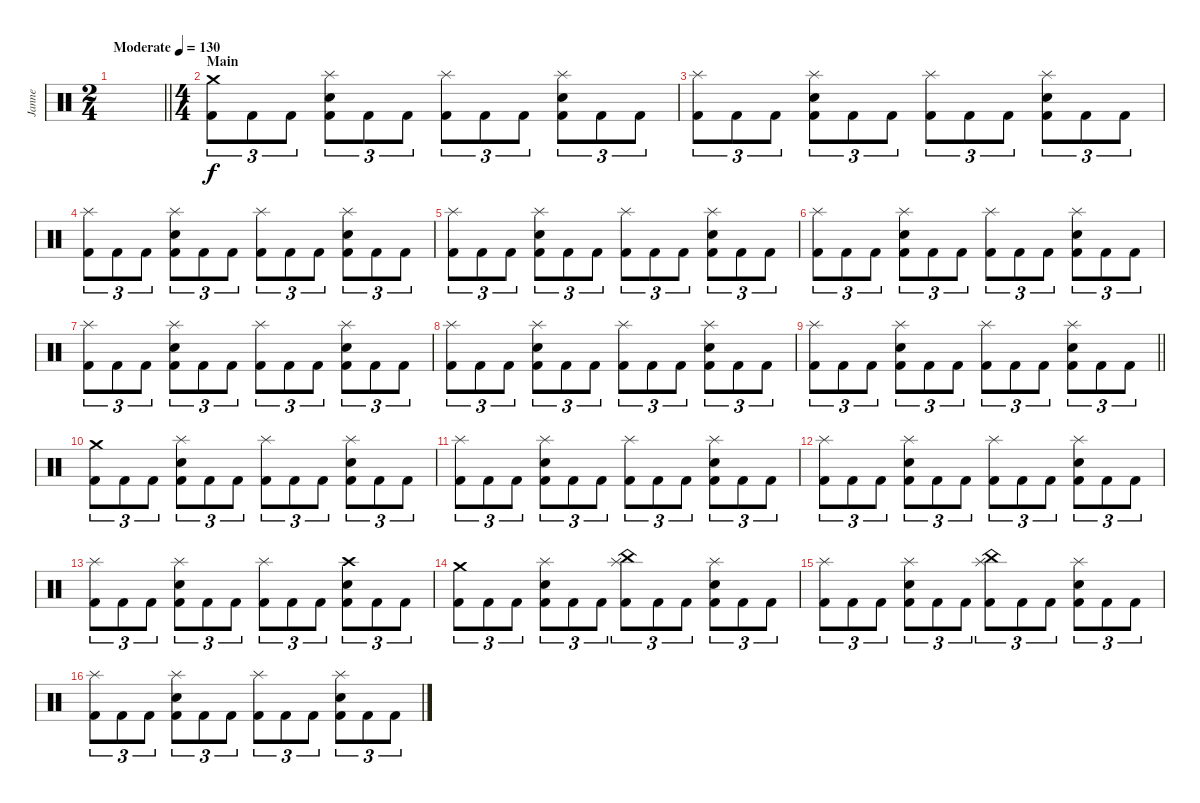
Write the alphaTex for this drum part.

\track ("Janne" "Janne") {instrument percussion}
\staff {score}
\articulation defaults
\ts (2 4)
\tempo (130 "Moderate")
\clef neutral
\barLineRight lightlight
\ks c
|
\ts (4 4)
\section ("" "Main")
("Kick (hit) 2" "Crash medium (hit)").8{tu (3 2)} "Kick (hit) 2".8{tu (3 2)} "Kick (hit) 2".8{tu (3 2)} ("Kick (hit) 2" "Snare (hit) 2" "Splash (hit)").8{tu (3 2)} "Kick (hit) 2".8{tu (3 2)} "Kick (hit) 2".8{tu (3 2)} ("Kick (hit) 2" "Splash (hit)").8{tu (3 2)} "Kick (hit) 2".8{tu (3 2)} "Kick (hit) 2".8{tu (3 2)} ("Kick (hit) 2" "Snare (hit) 2" "Splash (hit)").8{tu (3 2)} "Kick (hit) 2".8{tu (3 2)} "Kick (hit) 2".8{tu (3 2)} |
("Kick (hit) 2" "Splash (hit)").8{tu (3 2)} "Kick (hit) 2".8{tu (3 2)} "Kick (hit) 2".8{tu (3 2)} ("Kick (hit) 2" "Snare (hit) 2" "Splash (hit)").8{tu (3 2)} "Kick (hit) 2".8{tu (3 2)} "Kick (hit) 2".8{tu (3 2)} ("Kick (hit) 2" "Splash (hit)").8{tu (3 2)} "Kick (hit) 2".8{tu (3 2)} "Kick (hit) 2".8{tu (3 2)} ("Kick (hit) 2" "Snare (hit) 2" "Splash (hit)").8{tu (3 2)} "Kick (hit) 2".8{tu (3 2)} "Kick (hit) 2".8{tu (3 2)} |
("Kick (hit) 2" "Splash (hit)").8{tu (3 2)} "Kick (hit) 2".8{tu (3 2)} "Kick (hit) 2".8{tu (3 2)} ("Kick (hit) 2" "Snare (hit) 2" "Splash (hit)").8{tu (3 2)} "Kick (hit) 2".8{tu (3 2)} "Kick (hit) 2".8{tu (3 2)} ("Kick (hit) 2" "Splash (hit)").8{tu (3 2)} "Kick (hit) 2".8{tu (3 2)} "Kick (hit) 2".8{tu (3 2)} ("Kick (hit) 2" "Snare (hit) 2" "Splash (hit)").8{tu (3 2)} "Kick (hit) 2".8{tu (3 2)} "Kick (hit) 2".8{tu (3 2)} |
("Kick (hit) 2" "Splash (hit)").8{tu (3 2)} "Kick (hit) 2".8{tu (3 2)} "Kick (hit) 2".8{tu (3 2)} ("Kick (hit) 2" "Snare (hit) 2" "Splash (hit)").8{tu (3 2)} "Kick (hit) 2".8{tu (3 2)} "Kick (hit) 2".8{tu (3 2)} ("Kick (hit) 2" "Splash (hit)").8{tu (3 2)} "Kick (hit) 2".8{tu (3 2)} "Kick (hit) 2".8{tu (3 2)} ("Kick (hit) 2" "Snare (hit) 2" "Splash (hit)").8{tu (3 2)} "Kick (hit) 2".8{tu (3 2)} "Kick (hit) 2".8{tu (3 2)} |
("Kick (hit) 2" "Splash (hit)").8{tu (3 2)} "Kick (hit) 2".8{tu (3 2)} "Kick (hit) 2".8{tu (3 2)} ("Kick (hit) 2" "Snare (hit) 2" "Splash (hit)").8{tu (3 2)} "Kick (hit) 2".8{tu (3 2)} "Kick (hit) 2".8{tu (3 2)} ("Kick (hit) 2" "Splash (hit)").8{tu (3 2)} "Kick (hit) 2".8{tu (3 2)} "Kick (hit) 2".8{tu (3 2)} ("Kick (hit) 2" "Snare (hit) 2" "Splash (hit)").8{tu (3 2)} "Kick (hit) 2".8{tu (3 2)} "Kick (hit) 2".8{tu (3 2)} |
("Kick (hit) 2" "Splash (hit)").8{tu (3 2)} "Kick (hit) 2".8{tu (3 2)} "Kick (hit) 2".8{tu (3 2)} ("Kick (hit) 2" "Snare (hit) 2" "Splash (hit)").8{tu (3 2)} "Kick (hit) 2".8{tu (3 2)} "Kick (hit) 2".8{tu (3 2)} ("Kick (hit) 2" "Splash (hit)").8{tu (3 2)} "Kick (hit) 2".8{tu (3 2)} "Kick (hit) 2".8{tu (3 2)} ("Kick (hit) 2" "Snare (hit) 2" "Splash (hit)").8{tu (3 2)} "Kick (hit) 2".8{tu (3 2)} "Kick (hit) 2".8{tu (3 2)} |
("Kick (hit) 2" "Splash (hit)").8{tu (3 2)} "Kick (hit) 2".8{tu (3 2)} "Kick (hit) 2".8{tu (3 2)} ("Kick (hit) 2" "Snare (hit) 2" "Splash (hit)").8{tu (3 2)} "Kick (hit) 2".8{tu (3 2)} "Kick (hit) 2".8{tu (3 2)} ("Kick (hit) 2" "Splash (hit)").8{tu (3 2)} "Kick (hit) 2".8{tu (3 2)} "Kick (hit) 2".8{tu (3 2)} ("Kick (hit) 2" "Snare (hit) 2" "Splash (hit)").8{tu (3 2)} "Kick (hit) 2".8{tu (3 2)} "Kick (hit) 2".8{tu (3 2)} |
\barLineRight lightlight
("Kick (hit) 2" "Splash (hit)").8{tu (3 2)} "Kick (hit) 2".8{tu (3 2)} "Kick (hit) 2".8{tu (3 2)} ("Kick (hit) 2" "Snare (hit) 2" "Splash (hit)").8{tu (3 2)} "Kick (hit) 2".8{tu (3 2)} "Kick (hit) 2".8{tu (3 2)} ("Kick (hit) 2" "Splash (hit)").8{tu (3 2)} "Kick (hit) 2".8{tu (3 2)} "Kick (hit) 2".8{tu (3 2)} ("Kick (hit) 2" "Snare (hit) 2" "Splash (hit)").8{tu (3 2)} "Kick (hit) 2".8{tu (3 2)} "Kick (hit) 2".8{tu (3 2)} |
\section ("" "")
("Kick (hit) 2" "Crash medium (hit)").8{tu (3 2)} "Kick (hit) 2".8{tu (3 2)} "Kick (hit) 2".8{tu (3 2)} ("Kick (hit) 2" "Snare (hit) 2" "Splash (hit)").8{tu (3 2)} "Kick (hit) 2".8{tu (3 2)} "Kick (hit) 2".8{tu (3 2)} ("Kick (hit) 2" "Splash (hit)").8{tu (3 2)} "Kick (hit) 2".8{tu (3 2)} "Kick (hit) 2".8{tu (3 2)} ("Kick (hit) 2" "Snare (hit) 2" "Splash (hit)").8{tu (3 2)} "Kick (hit) 2".8{tu (3 2)} "Kick (hit) 2".8{tu (3 2)} |
("Kick (hit) 2" "Splash (hit)").8{tu (3 2)} "Kick (hit) 2".8{tu (3 2)} "Kick (hit) 2".8{tu (3 2)} ("Kick (hit) 2" "Snare (hit) 2" "Splash (hit)").8{tu (3 2)} "Kick (hit) 2".8{tu (3 2)} "Kick (hit) 2".8{tu (3 2)} ("Kick (hit) 2" "Splash (hit)").8{tu (3 2)} "Kick (hit) 2".8{tu (3 2)} "Kick (hit) 2".8{tu (3 2)} ("Kick (hit) 2" "Snare (hit) 2" "Splash (hit)").8{tu (3 2)} "Kick (hit) 2".8{tu (3 2)} "Kick (hit) 2".8{tu (3 2)} |
("Kick (hit) 2" "Splash (hit)").8{tu (3 2)} "Kick (hit) 2".8{tu (3 2)} "Kick (hit) 2".8{tu (3 2)} ("Kick (hit) 2" "Snare (hit) 2" "Splash (hit)").8{tu (3 2)} "Kick (hit) 2".8{tu (3 2)} "Kick (hit) 2".8{tu (3 2)} ("Kick (hit) 2" "Splash (hit)").8{tu (3 2)} "Kick (hit) 2".8{tu (3 2)} "Kick (hit) 2".8{tu (3 2)} ("Kick (hit) 2" "Snare (hit) 2" "Splash (hit)").8{tu (3 2)} "Kick (hit) 2".8{tu (3 2)} "Kick (hit) 2".8{tu (3 2)} |
("Kick (hit) 2" "Splash (hit)").8{tu (3 2)} "Kick (hit) 2".8{tu (3 2)} "Kick (hit) 2".8{tu (3 2)} ("Kick (hit) 2" "Snare (hit) 2" "Splash (hit)").8{tu (3 2)} "Kick (hit) 2".8{tu (3 2)} "Kick (hit) 2".8{tu (3 2)} ("Kick (hit) 2" "Splash (hit)").8{tu (3 2)} "Kick (hit) 2".8{tu (3 2)} "Kick (hit) 2".8{tu (3 2)} ("Kick (hit) 2" "Snare (hit) 2" "Crash high (hit)").8{tu (3 2)} "Kick (hit) 2".8{tu (3 2)} "Kick (hit) 2".8{tu (3 2)} |
("Kick (hit) 2" "Crash medium (hit)").8{tu (3 2)} "Kick (hit) 2".8{tu (3 2)} "Kick (hit) 2".8{tu (3 2)} ("Kick (hit) 2" "Snare (hit) 2" "Splash (hit)").8{tu (3 2)} "Kick (hit) 2".8{tu (3 2)} "Kick (hit) 2".8{tu (3 2)} ("Kick (hit) 2" "Splash (hit)" "China (hit)").8{tu (3 2)} "Kick (hit) 2".8{tu (3 2)} "Kick (hit) 2".8{tu (3 2)} ("Kick (hit) 2" "Snare (hit) 2" "Splash (hit)").8{tu (3 2)} "Kick (hit) 2".8{tu (3 2)} "Kick (hit) 2".8{tu (3 2)} |
("Kick (hit) 2" "Splash (hit)").8{tu (3 2)} "Kick (hit) 2".8{tu (3 2)} "Kick (hit) 2".8{tu (3 2)} ("Kick (hit) 2" "Snare (hit) 2" "Splash (hit)").8{tu (3 2)} "Kick (hit) 2".8{tu (3 2)} "Kick (hit) 2".8{tu (3 2)} ("Kick (hit) 2" "Splash (hit)" "China (hit)").8{tu (3 2)} "Kick (hit) 2".8{tu (3 2)} "Kick (hit) 2".8{tu (3 2)} ("Kick (hit) 2" "Snare (hit) 2" "Splash (hit)").8{tu (3 2)} "Kick (hit) 2".8{tu (3 2)} "Kick (hit) 2".8{tu (3 2)} |
("Kick (hit) 2" "Splash (hit)").8{tu (3 2)} "Kick (hit) 2".8{tu (3 2)} "Kick (hit) 2".8{tu (3 2)} ("Kick (hit) 2" "Snare (hit) 2" "Splash (hit)").8{tu (3 2)} "Kick (hit) 2".8{tu (3 2)} "Kick (hit) 2".8{tu (3 2)} ("Kick (hit) 2" "Splash (hit)").8{tu (3 2)} "Kick (hit) 2".8{tu (3 2)} "Kick (hit) 2".8{tu (3 2)} ("Kick (hit) 2" "Snare (hit) 2" "Splash (hit)").8{tu (3 2)} "Kick (hit) 2".8{tu (3 2)} "Kick (hit) 2".8{tu (3 2)}
